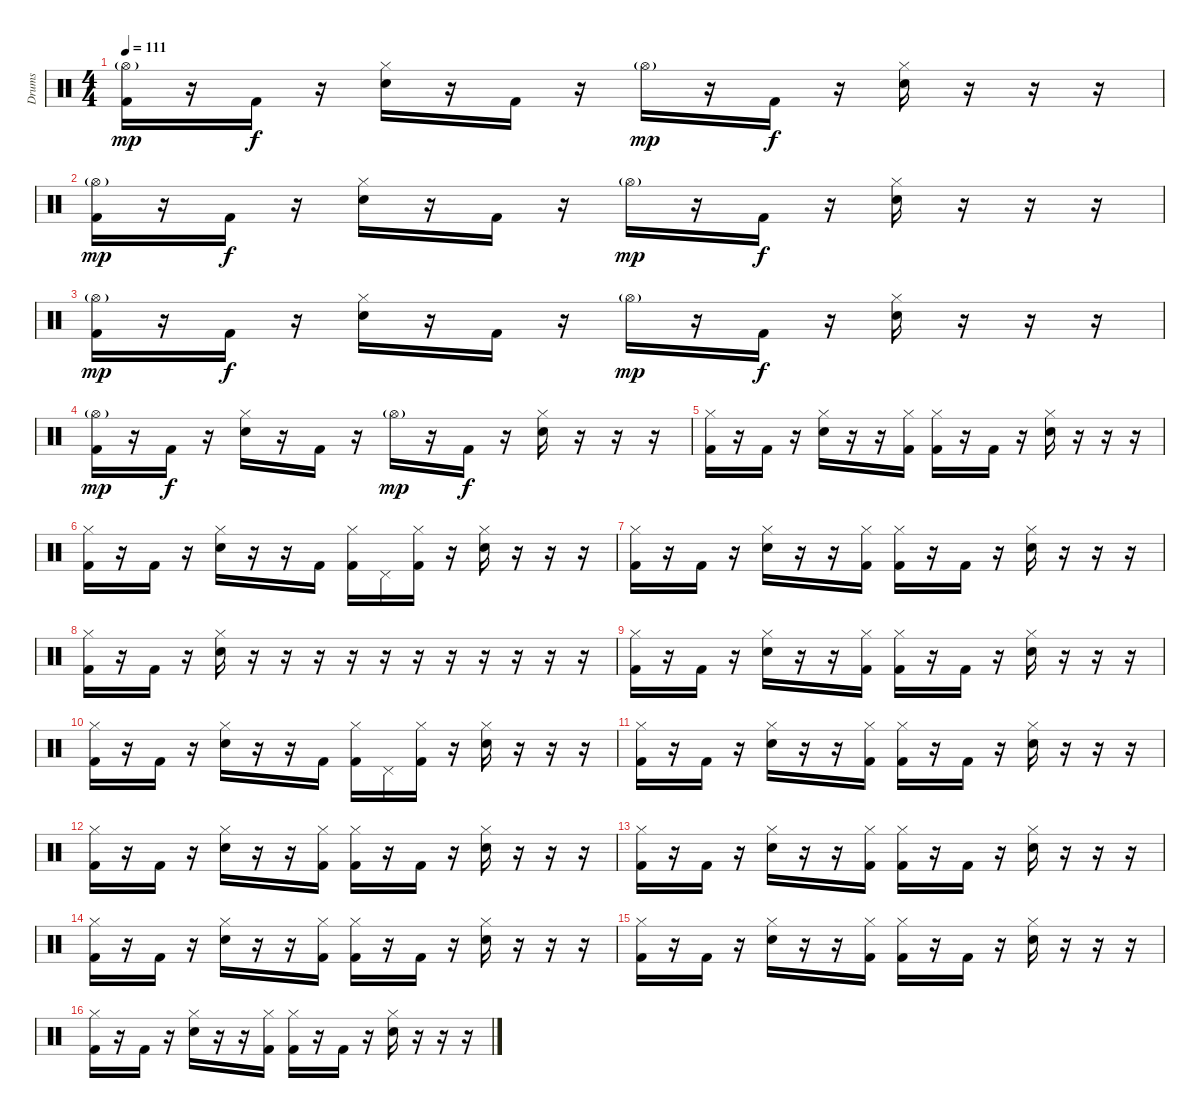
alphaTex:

\track ("Drums" "Drums") {instrument percussion}
\staff {score}
\articulation defaults
\ts (4 4)
\tempo 111
\clef neutral
\ks c
("Hi-Hat (open)"{g} "Kick (hit) 2").16{dy mp} r.16 "Kick (hit) 2".16{dy f} r.16 ("Hi-Hat (closed)" "Snare (hit) 2").16 r.16 "Kick (hit) 2".16 r.16 "Hi-Hat (open)"{g}.16{dy mp} r.16 "Kick (hit) 2".16{dy f} r.16 ("Hi-Hat (closed)" "Snare (hit) 2").16 r.16 r.16 r.16 |
("Hi-Hat (open)"{g} "Kick (hit) 2").16{dy mp} r.16 "Kick (hit) 2".16{dy f} r.16 ("Hi-Hat (closed)" "Snare (hit) 2").16 r.16 "Kick (hit) 2".16 r.16 "Hi-Hat (open)"{g}.16{dy mp} r.16 "Kick (hit) 2".16{dy f} r.16 ("Hi-Hat (closed)" "Snare (hit) 2").16 r.16 r.16 r.16 |
("Hi-Hat (open)"{g} "Kick (hit) 2").16{dy mp} r.16 "Kick (hit) 2".16{dy f} r.16 ("Hi-Hat (closed)" "Snare (hit) 2").16 r.16 "Kick (hit) 2".16 r.16 "Hi-Hat (open)"{g}.16{dy mp} r.16 "Kick (hit) 2".16{dy f} r.16 ("Hi-Hat (closed)" "Snare (hit) 2").16 r.16 r.16 r.16 |
("Hi-Hat (open)"{g} "Kick (hit) 2").16{dy mp} r.16 "Kick (hit) 2".16{dy f} r.16 ("Hi-Hat (closed)" "Snare (hit) 2").16 r.16 "Kick (hit) 2".16 r.16 "Hi-Hat (open)"{g}.16{dy mp} r.16 "Kick (hit) 2".16{dy f} r.16 ("Hi-Hat (closed)" "Snare (hit) 2").16 r.16 r.16 r.16 |
("Kick (hit) 2" "Hi-Hat (closed)").16 r.16 "Kick (hit) 2".16 r.16 ("Snare (hit) 2" "Hi-Hat (closed)").16 r.16 r.16 ("Kick (hit) 2" "Hi-Hat (closed)").16 ("Kick (hit) 2" "Hi-Hat (closed)").16 r.16 "Kick (hit) 2".16 r.16 ("Snare (hit) 2" "Hi-Hat (closed)").16 r.16 r.16 r.16 |
("Kick (hit) 2" "Hi-Hat (closed)").16 r.16 "Kick (hit) 2".16 r.16 ("Snare (hit) 2" "Hi-Hat (closed)").16 r.16 r.16 "Kick (hit) 2".16 ("Kick (hit) 2" "Hi-Hat (closed)").16 "Pedal Hi-Hat (hit)".16 ("Kick (hit) 2" "Hi-Hat (closed)").16 r.16 ("Snare (hit) 2" "Hi-Hat (closed)").16 r.16 r.16 r.16 |
("Kick (hit) 2" "Hi-Hat (closed)").16 r.16 "Kick (hit) 2".16 r.16 ("Snare (hit) 2" "Hi-Hat (closed)").16 r.16 r.16 ("Kick (hit) 2" "Hi-Hat (closed)").16 ("Kick (hit) 2" "Hi-Hat (closed)").16 r.16 "Kick (hit) 2".16 r.16 ("Snare (hit) 2" "Hi-Hat (closed)").16 r.16 r.16 r.16 |
("Kick (hit) 2" "Hi-Hat (closed)").16 r.16 "Kick (hit) 2".16 r.16 ("Snare (hit) 2" "Hi-Hat (closed)").16 r.16 r.16 r.16 r.16 r.16 r.16 r.16 r.16 r.16 r.16 r.16 |
("Kick (hit) 2" "Hi-Hat (closed)").16 r.16 "Kick (hit) 2".16 r.16 ("Snare (hit) 2" "Hi-Hat (closed)").16 r.16 r.16 ("Kick (hit) 2" "Hi-Hat (closed)").16 ("Kick (hit) 2" "Hi-Hat (closed)").16 r.16 "Kick (hit) 2".16 r.16 ("Snare (hit) 2" "Hi-Hat (closed)").16 r.16 r.16 r.16 |
("Kick (hit) 2" "Hi-Hat (closed)").16 r.16 "Kick (hit) 2".16 r.16 ("Snare (hit) 2" "Hi-Hat (closed)").16 r.16 r.16 "Kick (hit) 2".16 ("Kick (hit) 2" "Hi-Hat (closed)").16 "Pedal Hi-Hat (hit)".16 ("Kick (hit) 2" "Hi-Hat (closed)").16 r.16 ("Snare (hit) 2" "Hi-Hat (closed)").16 r.16 r.16 r.16 |
("Kick (hit) 2" "Hi-Hat (closed)").16 r.16 "Kick (hit) 2".16 r.16 ("Snare (hit) 2" "Hi-Hat (closed)").16 r.16 r.16 ("Kick (hit) 2" "Hi-Hat (closed)").16 ("Kick (hit) 2" "Hi-Hat (closed)").16 r.16 "Kick (hit) 2".16 r.16 ("Snare (hit) 2" "Hi-Hat (closed)").16 r.16 r.16 r.16 |
("Kick (hit) 2" "Hi-Hat (closed)").16 r.16 "Kick (hit) 2".16 r.16 ("Snare (hit) 2" "Hi-Hat (closed)").16 r.16 r.16 ("Kick (hit) 2" "Hi-Hat (closed)").16 ("Kick (hit) 2" "Hi-Hat (closed)").16 r.16 "Kick (hit) 2".16 r.16 ("Snare (hit) 2" "Hi-Hat (closed)").16 r.16 r.16 r.16 |
("Kick (hit) 2" "Hi-Hat (closed)").16 r.16 "Kick (hit) 2".16 r.16 ("Snare (hit) 2" "Hi-Hat (closed)").16 r.16 r.16 ("Kick (hit) 2" "Hi-Hat (closed)").16 ("Kick (hit) 2" "Hi-Hat (closed)").16 r.16 "Kick (hit) 2".16 r.16 ("Snare (hit) 2" "Hi-Hat (closed)").16 r.16 r.16 r.16 |
("Kick (hit) 2" "Hi-Hat (closed)").16 r.16 "Kick (hit) 2".16 r.16 ("Snare (hit) 2" "Hi-Hat (closed)").16 r.16 r.16 ("Kick (hit) 2" "Hi-Hat (closed)").16 ("Kick (hit) 2" "Hi-Hat (closed)").16 r.16 "Kick (hit) 2".16 r.16 ("Snare (hit) 2" "Hi-Hat (closed)").16 r.16 r.16 r.16 |
("Kick (hit) 2" "Hi-Hat (closed)").16 r.16 "Kick (hit) 2".16 r.16 ("Snare (hit) 2" "Hi-Hat (closed)").16 r.16 r.16 ("Kick (hit) 2" "Hi-Hat (closed)").16 ("Kick (hit) 2" "Hi-Hat (closed)").16 r.16 "Kick (hit) 2".16 r.16 ("Snare (hit) 2" "Hi-Hat (closed)").16 r.16 r.16 r.16 |
("Kick (hit) 2" "Hi-Hat (closed)").16 r.16 "Kick (hit) 2".16 r.16 ("Snare (hit) 2" "Hi-Hat (closed)").16 r.16 r.16 ("Kick (hit) 2" "Hi-Hat (closed)").16 ("Kick (hit) 2" "Hi-Hat (closed)").16 r.16 "Kick (hit) 2".16 r.16 ("Snare (hit) 2" "Hi-Hat (closed)").16 r.16 r.16 r.16
